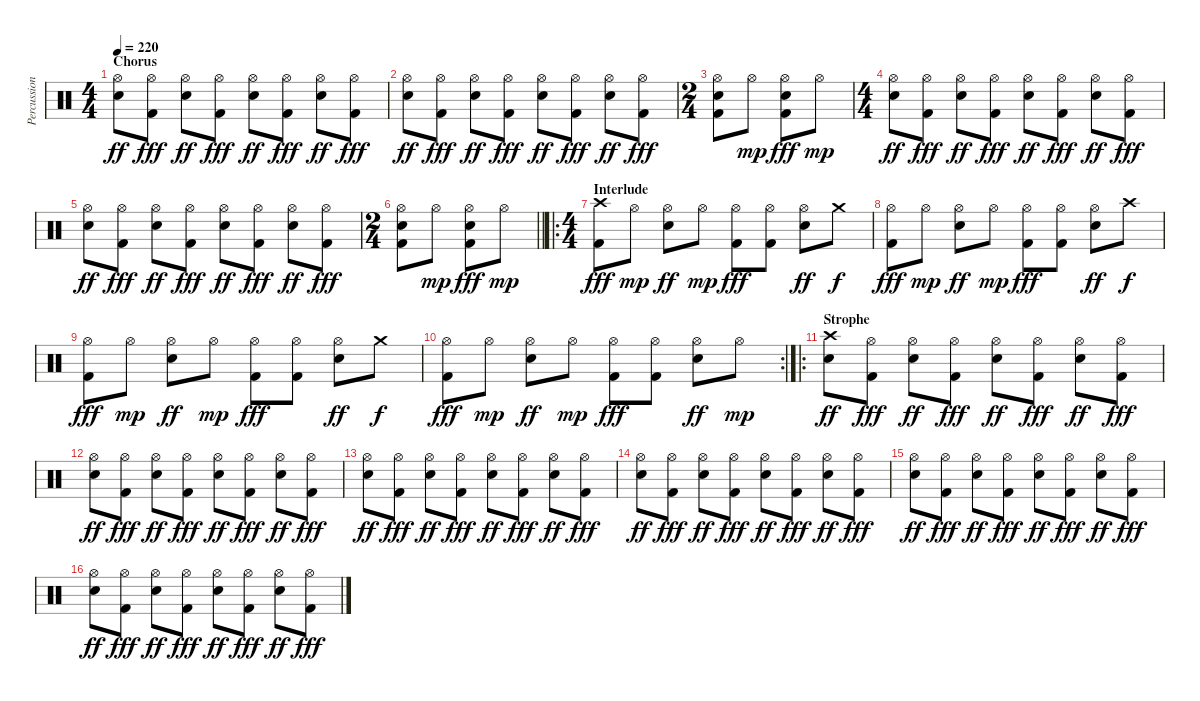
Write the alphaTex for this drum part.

\track ("Percussion" "Percussion") {instrument percussion}
\staff {score}
\articulation defaults
\ts (4 4)
\section ("" "Chorus")
\tempo 220
\clef neutral
\ks c
("Hi-Hat (open)" "Electric Snare (hit)").8{dy ff} ("Hi-Hat (open)" "Kick (hit) 2").8{dy fff} ("Hi-Hat (open)" "Electric Snare (hit)").8{dy ff} ("Hi-Hat (open)" "Kick (hit) 2").8{dy fff} ("Hi-Hat (open)" "Electric Snare (hit)").8{dy ff} ("Hi-Hat (open)" "Kick (hit) 2").8{dy fff} ("Hi-Hat (open)" "Electric Snare (hit)").8{dy ff} ("Hi-Hat (open)" "Kick (hit) 2").8{dy fff} |
("Hi-Hat (open)" "Electric Snare (hit)").8{dy ff} ("Hi-Hat (open)" "Kick (hit) 2").8{dy fff} ("Hi-Hat (open)" "Electric Snare (hit)").8{dy ff} ("Hi-Hat (open)" "Kick (hit) 2").8{dy fff} ("Hi-Hat (open)" "Electric Snare (hit)").8{dy ff} ("Hi-Hat (open)" "Kick (hit) 2").8{dy fff} ("Hi-Hat (open)" "Electric Snare (hit)").8{dy ff} ("Hi-Hat (open)" "Kick (hit) 2").8{dy fff} |
\ts (2 4)
("Hi-Hat (open)" "Electric Snare (hit)" "Kick (hit) 2").8 "Hi-Hat (open)".8{dy mp} ("Hi-Hat (open)" "Electric Snare (hit)" "Kick (hit) 2").8{dy fff} "Hi-Hat (open)".8{dy mp} |
\ts (4 4)
("Hi-Hat (open)" "Electric Snare (hit)").8{dy ff} ("Hi-Hat (open)" "Kick (hit) 2").8{dy fff} ("Hi-Hat (open)" "Electric Snare (hit)").8{dy ff} ("Hi-Hat (open)" "Kick (hit) 2").8{dy fff} ("Hi-Hat (open)" "Electric Snare (hit)").8{dy ff} ("Hi-Hat (open)" "Kick (hit) 2").8{dy fff} ("Hi-Hat (open)" "Electric Snare (hit)").8{dy ff} ("Hi-Hat (open)" "Kick (hit) 2").8{dy fff} |
("Hi-Hat (open)" "Electric Snare (hit)").8{dy ff} ("Hi-Hat (open)" "Kick (hit) 2").8{dy fff} ("Hi-Hat (open)" "Electric Snare (hit)").8{dy ff} ("Hi-Hat (open)" "Kick (hit) 2").8{dy fff} ("Hi-Hat (open)" "Electric Snare (hit)").8{dy ff} ("Hi-Hat (open)" "Kick (hit) 2").8{dy fff} ("Hi-Hat (open)" "Electric Snare (hit)").8{dy ff} ("Hi-Hat (open)" "Kick (hit) 2").8{dy fff} |
\ts (2 4)
\barLineRight lightlight
("Hi-Hat (open)" "Electric Snare (hit)" "Kick (hit) 2").8 "Hi-Hat (open)".8{dy mp} ("Hi-Hat (open)" "Electric Snare (hit)" "Kick (hit) 2").8{dy fff} "Hi-Hat (open)".8{dy mp} |
\ro
\ts (4 4)
\section ("" "Interlude")
("Crash high (hit)" "Kick (hit) 2").8{dy fff} "Hi-Hat (open)".8{dy mp} ("Hi-Hat (open)" "Electric Snare (hit)").8{dy ff} "Hi-Hat (open)".8{dy mp} ("Hi-Hat (open)" "Kick (hit) 2").8{dy fff} ("Hi-Hat (open)" "Kick (hit) 2").8 ("Hi-Hat (open)" "Electric Snare (hit)").8{dy ff} "Crash medium (hit)".8{dy f} |
("Hi-Hat (open)" "Kick (hit) 2").8{dy fff} "Hi-Hat (open)".8{dy mp} ("Hi-Hat (open)" "Electric Snare (hit)").8{dy ff} "Hi-Hat (open)".8{dy mp} ("Hi-Hat (open)" "Kick (hit) 2").8{dy fff} ("Hi-Hat (open)" "Kick (hit) 2").8 ("Hi-Hat (open)" "Electric Snare (hit)").8{dy ff} "Crash high (hit)".8{dy f} |
("Hi-Hat (open)" "Kick (hit) 2").8{dy fff} "Hi-Hat (open)".8{dy mp} ("Hi-Hat (open)" "Electric Snare (hit)").8{dy ff} "Hi-Hat (open)".8{dy mp} ("Hi-Hat (open)" "Kick (hit) 2").8{dy fff} ("Hi-Hat (open)" "Kick (hit) 2").8 ("Hi-Hat (open)" "Electric Snare (hit)").8{dy ff} "Crash medium (hit)".8{dy f} |
\rc 2
("Hi-Hat (open)" "Kick (hit) 2").8{dy fff} "Hi-Hat (open)".8{dy mp} ("Hi-Hat (open)" "Electric Snare (hit)").8{dy ff} "Hi-Hat (open)".8{dy mp} ("Hi-Hat (open)" "Kick (hit) 2").8{dy fff} ("Hi-Hat (open)" "Kick (hit) 2").8 ("Hi-Hat (open)" "Electric Snare (hit)").8{dy ff} "Hi-Hat (open)".8{dy mp} |
\ro
\section ("" "Strophe")
("Crash high (hit)" "Electric Snare (hit)").8{dy ff} ("Hi-Hat (open)" "Kick (hit) 2").8{dy fff} ("Hi-Hat (open)" "Electric Snare (hit)").8{dy ff} ("Hi-Hat (open)" "Kick (hit) 2").8{dy fff} ("Hi-Hat (open)" "Electric Snare (hit)").8{dy ff} ("Hi-Hat (open)" "Kick (hit) 2").8{dy fff} ("Hi-Hat (open)" "Electric Snare (hit)").8{dy ff} ("Hi-Hat (open)" "Kick (hit) 2").8{dy fff} |
("Hi-Hat (open)" "Electric Snare (hit)").8{dy ff} ("Hi-Hat (open)" "Kick (hit) 2").8{dy fff} ("Hi-Hat (open)" "Electric Snare (hit)").8{dy ff} ("Hi-Hat (open)" "Kick (hit) 2").8{dy fff} ("Hi-Hat (open)" "Electric Snare (hit)").8{dy ff} ("Hi-Hat (open)" "Kick (hit) 2").8{dy fff} ("Hi-Hat (open)" "Electric Snare (hit)").8{dy ff} ("Hi-Hat (open)" "Kick (hit) 2").8{dy fff} |
("Hi-Hat (open)" "Electric Snare (hit)").8{dy ff} ("Hi-Hat (open)" "Kick (hit) 2").8{dy fff} ("Hi-Hat (open)" "Electric Snare (hit)").8{dy ff} ("Hi-Hat (open)" "Kick (hit) 2").8{dy fff} ("Hi-Hat (open)" "Electric Snare (hit)").8{dy ff} ("Hi-Hat (open)" "Kick (hit) 2").8{dy fff} ("Hi-Hat (open)" "Electric Snare (hit)").8{dy ff} ("Hi-Hat (open)" "Kick (hit) 2").8{dy fff} |
("Hi-Hat (open)" "Electric Snare (hit)").8{dy ff} ("Hi-Hat (open)" "Kick (hit) 2").8{dy fff} ("Hi-Hat (open)" "Electric Snare (hit)").8{dy ff} ("Hi-Hat (open)" "Kick (hit) 2").8{dy fff} ("Hi-Hat (open)" "Electric Snare (hit)").8{dy ff} ("Hi-Hat (open)" "Kick (hit) 2").8{dy fff} ("Hi-Hat (open)" "Electric Snare (hit)").8{dy ff} ("Hi-Hat (open)" "Kick (hit) 2").8{dy fff} |
("Hi-Hat (open)" "Electric Snare (hit)").8{dy ff} ("Hi-Hat (open)" "Kick (hit) 2").8{dy fff} ("Hi-Hat (open)" "Electric Snare (hit)").8{dy ff} ("Hi-Hat (open)" "Kick (hit) 2").8{dy fff} ("Hi-Hat (open)" "Electric Snare (hit)").8{dy ff} ("Hi-Hat (open)" "Kick (hit) 2").8{dy fff} ("Hi-Hat (open)" "Electric Snare (hit)").8{dy ff} ("Hi-Hat (open)" "Kick (hit) 2").8{dy fff} |
("Hi-Hat (open)" "Electric Snare (hit)").8{dy ff} ("Hi-Hat (open)" "Kick (hit) 2").8{dy fff} ("Hi-Hat (open)" "Electric Snare (hit)").8{dy ff} ("Hi-Hat (open)" "Kick (hit) 2").8{dy fff} ("Hi-Hat (open)" "Electric Snare (hit)").8{dy ff} ("Hi-Hat (open)" "Kick (hit) 2").8{dy fff} ("Hi-Hat (open)" "Electric Snare (hit)").8{dy ff} ("Hi-Hat (open)" "Kick (hit) 2").8{dy fff}
